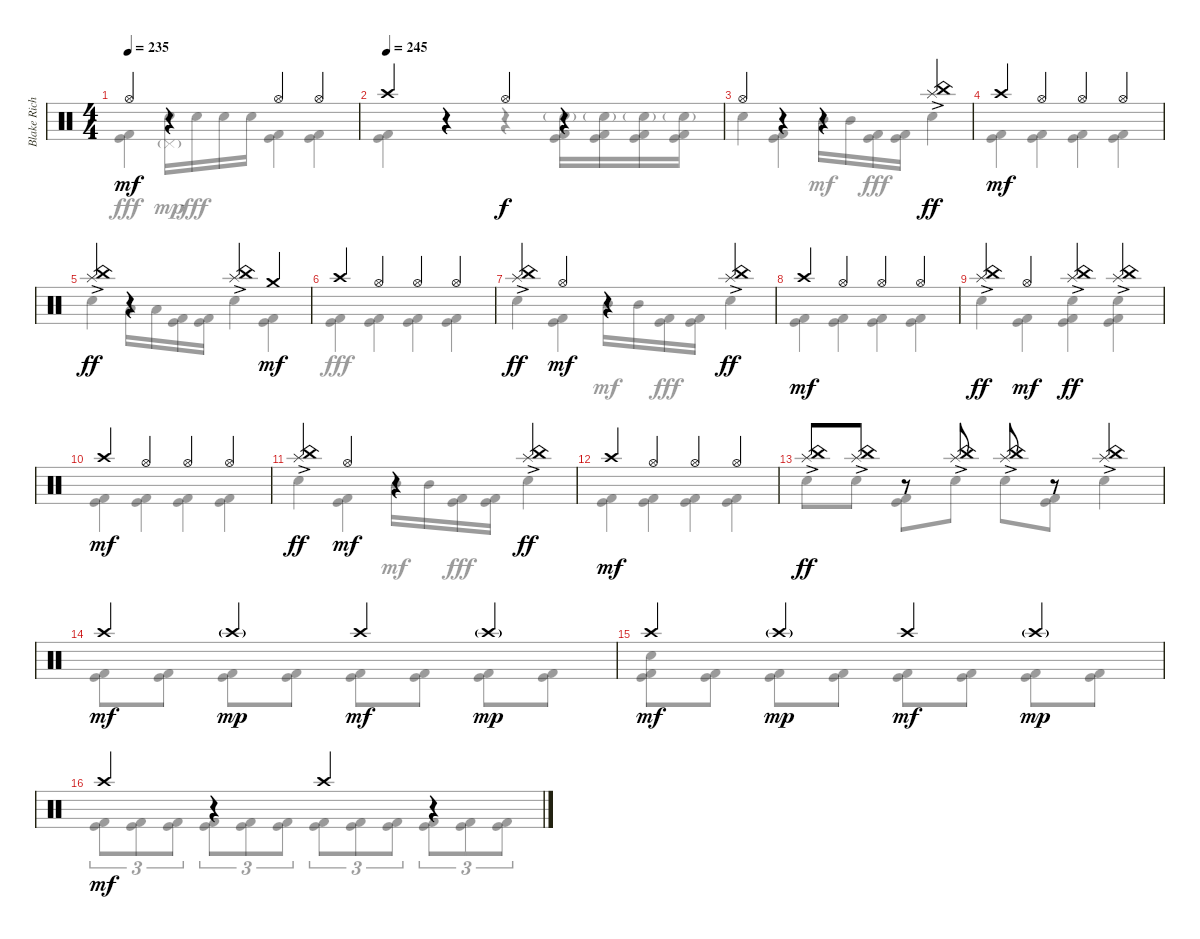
\track ("Blake Richardson Drums" "Blake Rich") {instrument percussion}
\staff {score}
\articulation defaults
\voice
\ts (4 4)
\tempo 235
\clef neutral
\ks c "Hi-Hat (open)".4{dy mf}
r.4 "Hi-Hat (open)".4 "Hi-Hat (open)".4 |
\tempo (245)
"Crash high (hit)".4 r.4 "Hi-Hat (open)".4{dy f} r.4 |
"Hi-Hat (open)".4 r.4 r.4 ("China (hit)" "Splash (hit)"{ac}).4{dy ff} |
"Crash high (hit)".4{dy mf} "Hi-Hat (open)".4 "Hi-Hat (open)".4 "Hi-Hat (open)".4 |
("China (hit)" "Splash (hit)"{ac}).4{dy ff} r.4 ("China (hit)" "Splash (hit)"{ac}).4 "Crash medium (hit)".4{dy mf} |
"Crash high (hit)".4 "Hi-Hat (open)".4 "Hi-Hat (open)".4 "Hi-Hat (open)".4 |
("China (hit)" "Splash (hit)"{ac}).4{dy ff} "Hi-Hat (open)".4{dy mf} r.4 ("China (hit)" "Splash (hit)"{ac}).4{dy ff} |
"Crash high (hit)".4{dy mf} "Hi-Hat (open)".4 "Hi-Hat (open)".4 "Hi-Hat (open)".4 |
("China (hit)" "Splash (hit)"{ac}).4{dy ff} "Hi-Hat (open)".4{dy mf} ("China (hit)" "Splash (hit)"{ac}).4{dy ff} ("China (hit)" "Splash (hit)"{ac}).4 |
"Crash high (hit)".4{dy mf} "Hi-Hat (open)".4 "Hi-Hat (open)".4 "Hi-Hat (open)".4 |
("China (hit)" "Splash (hit)"{ac}).4{dy ff} "Hi-Hat (open)".4{dy mf} r.4 ("China (hit)" "Splash (hit)"{ac}).4{dy ff} |
"Crash high (hit)".4{dy mf} "Hi-Hat (open)".4 "Hi-Hat (open)".4 "Hi-Hat (open)".4 |
("China (hit)" "Splash (hit)"{ac}).8{dy ff} ("China (hit)" "Splash (hit)"{ac}).8 r.8 ("China (hit)" "Splash (hit)"{ac}).8 ("China (hit)" "Splash (hit)"{ac}).8 r.8 ("China (hit)" "Splash (hit)"{ac}).4 |
"Crash high (hit)".4{dy mf} "Crash high (hit)"{g}.4{dy mp} "Crash high (hit)".4{dy mf} "Crash high (hit)"{g}.4{dy mp} |
"Crash high (hit)".4{dy mf} "Crash high (hit)"{g}.4{dy mp} "Crash high (hit)".4{dy mf} "Crash high (hit)"{g}.4{dy mp} |
"Crash high (hit)".4{dy mf} r.4 "Crash high (hit)".4 r.4
\voice
\clef neutral
\ottava regular
\simile none
\ks c
("Kick (hit)" "Kick (hit) 2").4{dy fff} ("Electric Snare (hit)" "Pedal Hi-Hat (hit)"{g}).16{dy mp} "Electric Snare (hit)".16{dy fff} "Electric Snare (hit)".16 "Electric Snare (hit)".16 ("Kick (hit)" "Kick (hit) 2").4 ("Kick (hit)" "Kick (hit) 2").4 |
("Kick (hit)" "Kick (hit) 2").4 r.4 r.4 ("Electric Snare (hit)"{g} "Kick (hit)" "Kick (hit) 2").16 ("Electric Snare (hit)"{g} "Kick (hit)" "Kick (hit) 2").16 ("Electric Snare (hit)"{g} "Kick (hit)" "Kick (hit) 2").16 ("Electric Snare (hit)"{g} "Kick (hit)" "Kick (hit) 2").16 |
"Electric Snare (hit)".4 ("Kick (hit)" "Kick (hit) 2").4 "Mid Tom (hit)".16{dy mf} "Mid Tom (hit)".16 ("Kick (hit)" "Kick (hit) 2").16{dy fff} ("Kick (hit)" "Kick (hit) 2").16 "Electric Snare (hit)".4 |
("Kick (hit)" "Kick (hit) 2").4{dy mf} ("Kick (hit)" "Kick (hit) 2").4 ("Kick (hit)" "Kick (hit) 2").4 ("Kick (hit)" "Kick (hit) 2").4 |
"Electric Snare (hit)".4 "Low Tom (hit)".16 "Low Tom (hit)".16 ("Kick (hit)" "Kick (hit) 2").16 ("Kick (hit)" "Kick (hit) 2").16 "Electric Snare (hit)".4 ("Kick (hit)" "Kick (hit) 2").4 |
("Kick (hit)" "Kick (hit) 2").4{dy fff} ("Kick (hit)" "Kick (hit) 2").4 ("Kick (hit)" "Kick (hit) 2").4 ("Kick (hit)" "Kick (hit) 2").4 |
"Electric Snare (hit)".4 ("Kick (hit)" "Kick (hit) 2").4 "Mid Tom (hit)".16{dy mf} "Mid Tom (hit)".16 ("Kick (hit)" "Kick (hit) 2").16{dy fff} ("Kick (hit)" "Kick (hit) 2").16 "Electric Snare (hit)".4 |
("Kick (hit)" "Kick (hit) 2").4 ("Kick (hit)" "Kick (hit) 2").4 ("Kick (hit)" "Kick (hit) 2").4 ("Kick (hit)" "Kick (hit) 2").4 |
"Electric Snare (hit)".4 ("Kick (hit)" "Kick (hit) 2").4 ("Electric Snare (hit)" "Kick (hit)" "Kick (hit) 2").4 ("Electric Snare (hit)" "Kick (hit)" "Kick (hit) 2").4 |
("Kick (hit)" "Kick (hit) 2").4 ("Kick (hit)" "Kick (hit) 2").4 ("Kick (hit)" "Kick (hit) 2").4 ("Kick (hit)" "Kick (hit) 2").4 |
"Electric Snare (hit)".4 ("Kick (hit)" "Kick (hit) 2").4 "Mid Tom (hit)".16{dy mf} "Mid Tom (hit)".16 ("Kick (hit)" "Kick (hit) 2").16{dy fff} ("Kick (hit)" "Kick (hit) 2").16 "Electric Snare (hit)".4 |
("Kick (hit)" "Kick (hit) 2").4 ("Kick (hit)" "Kick (hit) 2").4 ("Kick (hit)" "Kick (hit) 2").4 ("Kick (hit)" "Kick (hit) 2").4 |
"Electric Snare (hit)".8 "Electric Snare (hit)".8 ("Kick (hit)" "Kick (hit) 2").8 "Electric Snare (hit)".8 "Electric Snare (hit)".8 ("Kick (hit)" "Kick (hit) 2").8 "Electric Snare (hit)".4 |
("Kick (hit)" "Kick (hit) 2").8 ("Kick (hit)" "Kick (hit) 2").8 ("Kick (hit)" "Kick (hit) 2").8 ("Kick (hit)" "Kick (hit) 2").8 ("Kick (hit)" "Kick (hit) 2").8 ("Kick (hit)" "Kick (hit) 2").8 ("Kick (hit)" "Kick (hit) 2").8 ("Kick (hit)" "Kick (hit) 2").8 |
("Electric Snare (hit)" "Kick (hit)" "Kick (hit) 2").8 ("Kick (hit)" "Kick (hit) 2").8 ("Kick (hit)" "Kick (hit) 2").8 ("Kick (hit)" "Kick (hit) 2").8 ("Kick (hit)" "Kick (hit) 2").8 ("Kick (hit)" "Kick (hit) 2").8 ("Kick (hit)" "Kick (hit) 2").8 ("Kick (hit)" "Kick (hit) 2").8 |
("Kick (hit)" "Kick (hit) 2").8{tu (3 2)} ("Kick (hit)" "Kick (hit) 2").8{tu (3 2)} ("Kick (hit)" "Kick (hit) 2").8{tu (3 2)} ("Kick (hit)" "Kick (hit) 2").8{tu (3 2)} ("Kick (hit)" "Kick (hit) 2").8{tu (3 2)} ("Kick (hit)" "Kick (hit) 2").8{tu (3 2)} ("Kick (hit)" "Kick (hit) 2").8{tu (3 2)} ("Kick (hit)" "Kick (hit) 2").8{tu (3 2)} ("Kick (hit)" "Kick (hit) 2").8{tu (3 2)} ("Kick (hit)" "Kick (hit) 2").8{tu (3 2)} ("Kick (hit)" "Kick (hit) 2").8{tu (3 2)} ("Kick (hit)" "Kick (hit) 2").8{tu (3 2)}
